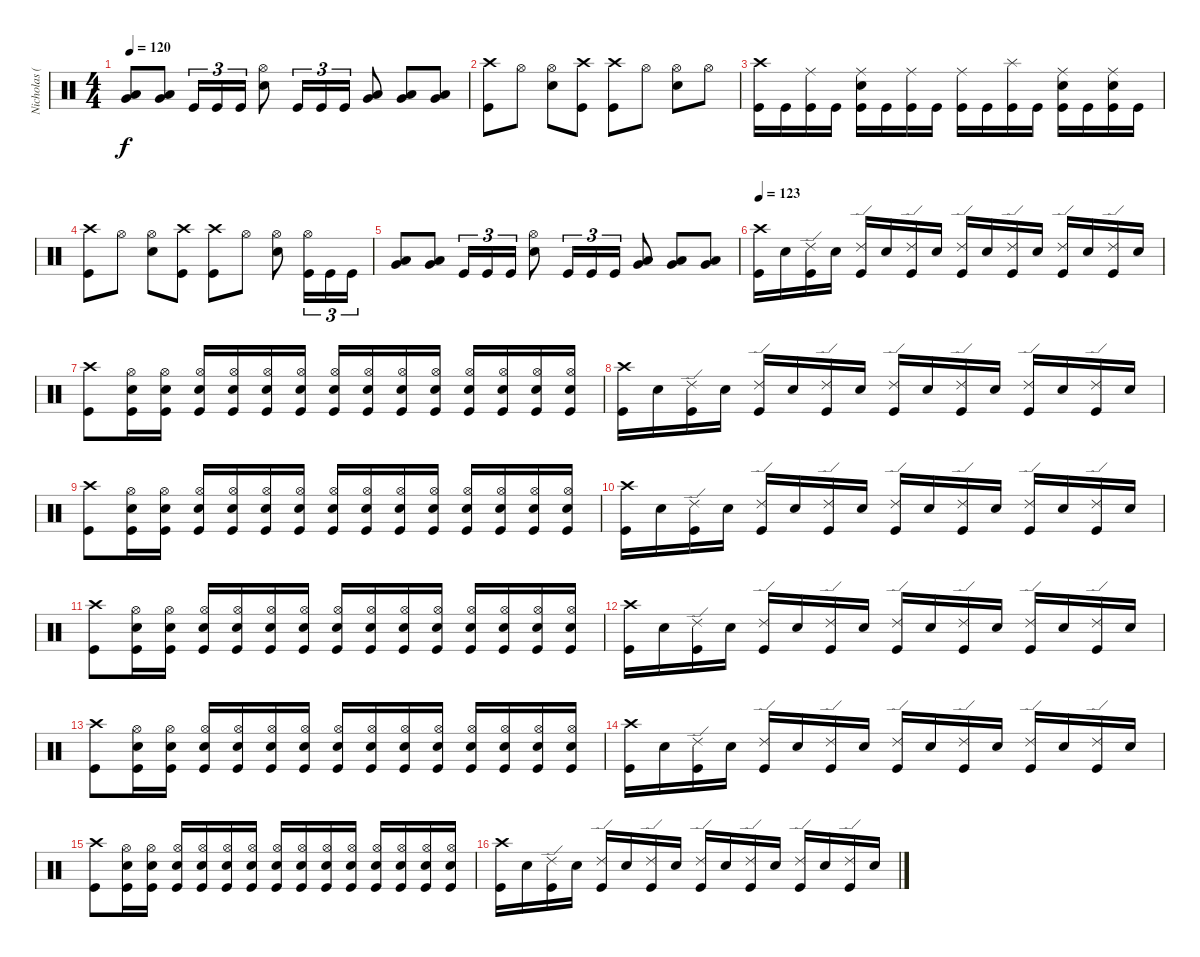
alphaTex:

\track ("Nicholas (Drums)" "Nicholas (") {instrument percussion}
\staff {score}
\articulation defaults
\ts (4 4)
\tempo 120
\clef neutral
\ks c
("Low Tom (hit)" "Very Low Tom (hit)").8{bu 60 dy f} ("Low Tom (hit)" "Very Low Tom (hit)").8{bu 60} "Kick (hit)".16{tu (3 2)} "Kick (hit)".16{tu (3 2)} "Kick (hit)".16{tu (3 2)} ("Hi-Hat (open)" "Electric Snare (hit)").8 "Kick (hit)".16{tu (3 2)} "Kick (hit)".16{tu (3 2)} "Kick (hit)".16{tu (3 2)} ("Low Tom (hit)" "Very Low Tom (hit)").8{bu 60} ("Low Tom (hit)" "Very Low Tom (hit)").8{bu 60} ("Low Tom (hit)" "Very Low Tom (hit)").8{bu 60} |
("Crash high (hit)" "Kick (hit)").8 "Hi-Hat (open)".8 ("Hi-Hat (open)" "Electric Snare (hit)").8 ("Crash high (hit)" "Kick (hit)").8 ("Crash high (hit)" "Kick (hit)").8 "Hi-Hat (open)".8 ("Hi-Hat (open)" "Electric Snare (hit)").8 "Hi-Hat (open)".8 |
("Crash high (hit)" "Kick (hit)").16 "Kick (hit)".16 ("Ride (middle)" "Kick (hit)").16 "Kick (hit)".16 ("Ride (middle)" "Electric Snare (hit)" "Kick (hit)").16 "Kick (hit)".16 ("Ride (middle)" "Kick (hit)").16 "Kick (hit)".16 ("Ride (middle)" "Kick (hit)").16 "Kick (hit)".16 ("Splash (hit)" "Kick (hit)").16 "Kick (hit)".16 ("Ride (middle)" "Electric Snare (hit)" "Kick (hit)").16 "Kick (hit)".16 ("Ride (middle)" "Electric Snare (hit)" "Kick (hit)").16 "Kick (hit)".16 |
("Crash high (hit)" "Kick (hit)").8 "Hi-Hat (open)".8 ("Hi-Hat (open)" "Electric Snare (hit)").8 ("Crash high (hit)" "Kick (hit)").8 ("Crash high (hit)" "Kick (hit)").8 "Hi-Hat (open)".8 ("Hi-Hat (open)" "Electric Snare (hit)").8 ("Hi-Hat (open)" "Kick (hit)").16{tu (3 2)} "Kick (hit)".16{tu (3 2)} "Kick (hit)".16{tu (3 2)} |
("Low Tom (hit)" "Very Low Tom (hit)").8{bu 60} ("Low Tom (hit)" "Very Low Tom (hit)").8{bu 60} "Kick (hit)".16{tu (3 2)} "Kick (hit)".16{tu (3 2)} "Kick (hit)".16{tu (3 2)} ("Hi-Hat (open)" "Electric Snare (hit)").8 "Kick (hit)".16{tu (3 2)} "Kick (hit)".16{tu (3 2)} "Kick (hit)".16{tu (3 2)} ("Low Tom (hit)" "Very Low Tom (hit)").8{bu 60} ("Low Tom (hit)" "Very Low Tom (hit)").8{bu 60} ("Low Tom (hit)" "Very Low Tom (hit)").8{bu 60} |
\tempo 123
("Crash high (hit)" "Kick (hit)").16 "Electric Snare (hit)".16 ("Ride (edge) 2" "Kick (hit)").16 "Electric Snare (hit)".16 ("Ride (edge) 2" "Kick (hit)").16 "Electric Snare (hit)".16 ("Ride (edge) 2" "Kick (hit)").16 "Electric Snare (hit)".16 ("Ride (edge) 2" "Kick (hit)").16 "Electric Snare (hit)".16 ("Ride (edge) 2" "Kick (hit)").16 "Electric Snare (hit)".16 ("Ride (edge) 2" "Kick (hit)").16 "Electric Snare (hit)".16 ("Ride (edge) 2" "Kick (hit)").16 "Electric Snare (hit)".16 |
("Crash high (hit)" "Kick (hit)").8 ("Hi-Hat (open)" "Electric Snare (hit)" "Kick (hit)").16 ("Hi-Hat (open)" "Electric Snare (hit)" "Kick (hit)").16 ("Hi-Hat (open)" "Electric Snare (hit)" "Kick (hit)").16 ("Hi-Hat (open)" "Electric Snare (hit)" "Kick (hit)").16 ("Hi-Hat (open)" "Electric Snare (hit)" "Kick (hit)").16 ("Hi-Hat (open)" "Electric Snare (hit)" "Kick (hit)").16 ("Hi-Hat (open)" "Electric Snare (hit)" "Kick (hit)").16 ("Hi-Hat (open)" "Electric Snare (hit)" "Kick (hit)").16 ("Hi-Hat (open)" "Electric Snare (hit)" "Kick (hit)").16 ("Hi-Hat (open)" "Electric Snare (hit)" "Kick (hit)").16 ("Hi-Hat (open)" "Electric Snare (hit)" "Kick (hit)").16 ("Hi-Hat (open)" "Electric Snare (hit)" "Kick (hit)").16 ("Hi-Hat (open)" "Electric Snare (hit)" "Kick (hit)").16 ("Hi-Hat (open)" "Electric Snare (hit)" "Kick (hit)").16 |
("Crash high (hit)" "Kick (hit)").16 "Electric Snare (hit)".16 ("Ride (edge) 2" "Kick (hit)").16 "Electric Snare (hit)".16 ("Ride (edge) 2" "Kick (hit)").16 "Electric Snare (hit)".16 ("Ride (edge) 2" "Kick (hit)").16 "Electric Snare (hit)".16 ("Ride (edge) 2" "Kick (hit)").16 "Electric Snare (hit)".16 ("Ride (edge) 2" "Kick (hit)").16 "Electric Snare (hit)".16 ("Ride (edge) 2" "Kick (hit)").16 "Electric Snare (hit)".16 ("Ride (edge) 2" "Kick (hit)").16 "Electric Snare (hit)".16 |
("Crash high (hit)" "Kick (hit)").8 ("Hi-Hat (open)" "Electric Snare (hit)" "Kick (hit)").16 ("Hi-Hat (open)" "Electric Snare (hit)" "Kick (hit)").16 ("Hi-Hat (open)" "Electric Snare (hit)" "Kick (hit)").16 ("Hi-Hat (open)" "Electric Snare (hit)" "Kick (hit)").16 ("Hi-Hat (open)" "Electric Snare (hit)" "Kick (hit)").16 ("Hi-Hat (open)" "Electric Snare (hit)" "Kick (hit)").16 ("Hi-Hat (open)" "Electric Snare (hit)" "Kick (hit)").16 ("Hi-Hat (open)" "Electric Snare (hit)" "Kick (hit)").16 ("Hi-Hat (open)" "Electric Snare (hit)" "Kick (hit)").16 ("Hi-Hat (open)" "Electric Snare (hit)" "Kick (hit)").16 ("Hi-Hat (open)" "Electric Snare (hit)" "Kick (hit)").16 ("Hi-Hat (open)" "Electric Snare (hit)" "Kick (hit)").16 ("Hi-Hat (open)" "Electric Snare (hit)" "Kick (hit)").16 ("Hi-Hat (open)" "Electric Snare (hit)" "Kick (hit)").16 |
("Crash high (hit)" "Kick (hit)").16 "Electric Snare (hit)".16 ("Ride (edge) 2" "Kick (hit)").16 "Electric Snare (hit)".16 ("Ride (edge) 2" "Kick (hit)").16 "Electric Snare (hit)".16 ("Ride (edge) 2" "Kick (hit)").16 "Electric Snare (hit)".16 ("Ride (edge) 2" "Kick (hit)").16 "Electric Snare (hit)".16 ("Ride (edge) 2" "Kick (hit)").16 "Electric Snare (hit)".16 ("Ride (edge) 2" "Kick (hit)").16 "Electric Snare (hit)".16 ("Ride (edge) 2" "Kick (hit)").16 "Electric Snare (hit)".16 |
("Crash high (hit)" "Kick (hit)").8 ("Hi-Hat (open)" "Electric Snare (hit)" "Kick (hit)").16 ("Hi-Hat (open)" "Electric Snare (hit)" "Kick (hit)").16 ("Hi-Hat (open)" "Electric Snare (hit)" "Kick (hit)").16 ("Hi-Hat (open)" "Electric Snare (hit)" "Kick (hit)").16 ("Hi-Hat (open)" "Electric Snare (hit)" "Kick (hit)").16 ("Hi-Hat (open)" "Electric Snare (hit)" "Kick (hit)").16 ("Hi-Hat (open)" "Electric Snare (hit)" "Kick (hit)").16 ("Hi-Hat (open)" "Electric Snare (hit)" "Kick (hit)").16 ("Hi-Hat (open)" "Electric Snare (hit)" "Kick (hit)").16 ("Hi-Hat (open)" "Electric Snare (hit)" "Kick (hit)").16 ("Hi-Hat (open)" "Electric Snare (hit)" "Kick (hit)").16 ("Hi-Hat (open)" "Electric Snare (hit)" "Kick (hit)").16 ("Hi-Hat (open)" "Electric Snare (hit)" "Kick (hit)").16 ("Hi-Hat (open)" "Electric Snare (hit)" "Kick (hit)").16 |
("Crash high (hit)" "Kick (hit)").16 "Electric Snare (hit)".16 ("Ride (edge) 2" "Kick (hit)").16 "Electric Snare (hit)".16 ("Ride (edge) 2" "Kick (hit)").16 "Electric Snare (hit)".16 ("Ride (edge) 2" "Kick (hit)").16 "Electric Snare (hit)".16 ("Ride (edge) 2" "Kick (hit)").16 "Electric Snare (hit)".16 ("Ride (edge) 2" "Kick (hit)").16 "Electric Snare (hit)".16 ("Ride (edge) 2" "Kick (hit)").16 "Electric Snare (hit)".16 ("Ride (edge) 2" "Kick (hit)").16 "Electric Snare (hit)".16 |
("Crash high (hit)" "Kick (hit)").8 ("Hi-Hat (open)" "Electric Snare (hit)" "Kick (hit)").16 ("Hi-Hat (open)" "Electric Snare (hit)" "Kick (hit)").16 ("Hi-Hat (open)" "Electric Snare (hit)" "Kick (hit)").16 ("Hi-Hat (open)" "Electric Snare (hit)" "Kick (hit)").16 ("Hi-Hat (open)" "Electric Snare (hit)" "Kick (hit)").16 ("Hi-Hat (open)" "Electric Snare (hit)" "Kick (hit)").16 ("Hi-Hat (open)" "Electric Snare (hit)" "Kick (hit)").16 ("Hi-Hat (open)" "Electric Snare (hit)" "Kick (hit)").16 ("Hi-Hat (open)" "Electric Snare (hit)" "Kick (hit)").16 ("Hi-Hat (open)" "Electric Snare (hit)" "Kick (hit)").16 ("Hi-Hat (open)" "Electric Snare (hit)" "Kick (hit)").16 ("Hi-Hat (open)" "Electric Snare (hit)" "Kick (hit)").16 ("Hi-Hat (open)" "Electric Snare (hit)" "Kick (hit)").16 ("Hi-Hat (open)" "Electric Snare (hit)" "Kick (hit)").16 |
("Crash high (hit)" "Kick (hit)").16 "Electric Snare (hit)".16 ("Ride (edge) 2" "Kick (hit)").16 "Electric Snare (hit)".16 ("Ride (edge) 2" "Kick (hit)").16 "Electric Snare (hit)".16 ("Ride (edge) 2" "Kick (hit)").16 "Electric Snare (hit)".16 ("Ride (edge) 2" "Kick (hit)").16 "Electric Snare (hit)".16 ("Ride (edge) 2" "Kick (hit)").16 "Electric Snare (hit)".16 ("Ride (edge) 2" "Kick (hit)").16 "Electric Snare (hit)".16 ("Ride (edge) 2" "Kick (hit)").16 "Electric Snare (hit)".16 |
("Crash high (hit)" "Kick (hit)").8 ("Hi-Hat (open)" "Electric Snare (hit)" "Kick (hit)").16 ("Hi-Hat (open)" "Electric Snare (hit)" "Kick (hit)").16 ("Hi-Hat (open)" "Electric Snare (hit)" "Kick (hit)").16 ("Hi-Hat (open)" "Electric Snare (hit)" "Kick (hit)").16 ("Hi-Hat (open)" "Electric Snare (hit)" "Kick (hit)").16 ("Hi-Hat (open)" "Electric Snare (hit)" "Kick (hit)").16 ("Hi-Hat (open)" "Electric Snare (hit)" "Kick (hit)").16 ("Hi-Hat (open)" "Electric Snare (hit)" "Kick (hit)").16 ("Hi-Hat (open)" "Electric Snare (hit)" "Kick (hit)").16 ("Hi-Hat (open)" "Electric Snare (hit)" "Kick (hit)").16 ("Hi-Hat (open)" "Electric Snare (hit)" "Kick (hit)").16 ("Hi-Hat (open)" "Electric Snare (hit)" "Kick (hit)").16 ("Hi-Hat (open)" "Electric Snare (hit)" "Kick (hit)").16 ("Hi-Hat (open)" "Electric Snare (hit)" "Kick (hit)").16 |
("Crash high (hit)" "Kick (hit)").16 "Electric Snare (hit)".16 ("Ride (edge) 2" "Kick (hit)").16 "Electric Snare (hit)".16 ("Ride (edge) 2" "Kick (hit)").16 "Electric Snare (hit)".16 ("Ride (edge) 2" "Kick (hit)").16 "Electric Snare (hit)".16 ("Ride (edge) 2" "Kick (hit)").16 "Electric Snare (hit)".16 ("Ride (edge) 2" "Kick (hit)").16 "Electric Snare (hit)".16 ("Ride (edge) 2" "Kick (hit)").16 "Electric Snare (hit)".16 ("Ride (edge) 2" "Kick (hit)").16 "Electric Snare (hit)".16
